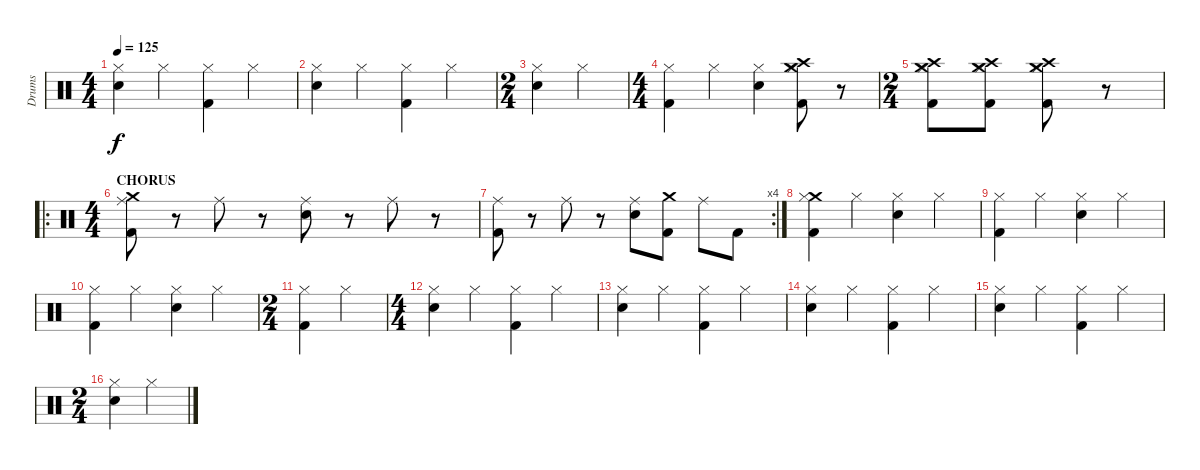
\track ("Drums" "Drums") {instrument percussion}
\staff {score}
\articulation defaults
\ts (4 4)
\tempo 125
\clef neutral
\ks c
("Hi-Hat (closed)" "Electric Snare (hit)").4{dy f} "Hi-Hat (closed)".4 ("Hi-Hat (closed)" "Kick (hit) 2").4 "Hi-Hat (closed)".4 |
("Hi-Hat (closed)" "Electric Snare (hit)").4 "Hi-Hat (closed)".4 ("Hi-Hat (closed)" "Kick (hit) 2").4 "Hi-Hat (closed)".4 |
\ts (2 4)
("Hi-Hat (closed)" "Electric Snare (hit)").4 "Hi-Hat (closed)".4 |
\ts (4 4)
("Hi-Hat (closed)" "Kick (hit) 2").4 "Hi-Hat (closed)".4 ("Hi-Hat (closed)" "Electric Snare (hit)").4 ("Crash medium (hit)" "Crash high (hit)" "Hi-Hat (closed)" "Kick (hit) 2").8 r.8 |
\ts (2 4)
("Crash medium (hit)" "Crash high (hit)" "Hi-Hat (closed)" "Kick (hit) 2").8 ("Crash medium (hit)" "Crash high (hit)" "Hi-Hat (closed)" "Kick (hit) 2").8 ("Crash medium (hit)" "Crash high (hit)" "Hi-Hat (closed)" "Kick (hit) 2").8 r.8 |
\ro
\ts (4 4)
\section ("" "CHORUS")
("Crash medium (hit)" "Ride (middle)" "Kick (hit) 2").8 r.8 "Ride (middle)".8 r.8 ("Ride (middle)" "Electric Snare (hit)").8 r.8 "Ride (middle)".8 r.8 |
\rc 4
("Ride (middle)" "Kick (hit) 2").8 r.8 "Ride (middle)".8 r.8 ("Ride (middle)" "Electric Snare (hit)").8 ("Crash medium (hit)" "Kick (hit) 2").8 "Ride (middle)".8 "Kick (hit) 2".8 |
("Crash medium (hit)" "Hi-Hat (closed)" "Kick (hit) 2").4 "Hi-Hat (closed)".4 ("Hi-Hat (closed)" "Electric Snare (hit)").4 "Hi-Hat (closed)".4 |
("Hi-Hat (closed)" "Kick (hit) 2").4 "Hi-Hat (closed)".4 ("Hi-Hat (closed)" "Electric Snare (hit)").4 "Hi-Hat (closed)".4 |
("Hi-Hat (closed)" "Kick (hit) 2").4 "Hi-Hat (closed)".4 ("Hi-Hat (closed)" "Electric Snare (hit)").4 "Hi-Hat (closed)".4 |
\ts (2 4)
("Hi-Hat (closed)" "Kick (hit) 2").4 "Hi-Hat (closed)".4 |
\ts (4 4)
("Hi-Hat (closed)" "Electric Snare (hit)").4 "Hi-Hat (closed)".4 ("Hi-Hat (closed)" "Kick (hit) 2").4 "Hi-Hat (closed)".4 |
("Hi-Hat (closed)" "Electric Snare (hit)").4 "Hi-Hat (closed)".4 ("Hi-Hat (closed)" "Kick (hit) 2").4 "Hi-Hat (closed)".4 |
("Hi-Hat (closed)" "Electric Snare (hit)").4 "Hi-Hat (closed)".4 ("Hi-Hat (closed)" "Kick (hit) 2").4 "Hi-Hat (closed)".4 |
("Hi-Hat (closed)" "Electric Snare (hit)").4 "Hi-Hat (closed)".4 ("Hi-Hat (closed)" "Kick (hit) 2").4 "Hi-Hat (closed)".4 |
\ts (2 4)
("Hi-Hat (closed)" "Electric Snare (hit)").4 "Hi-Hat (closed)".4
